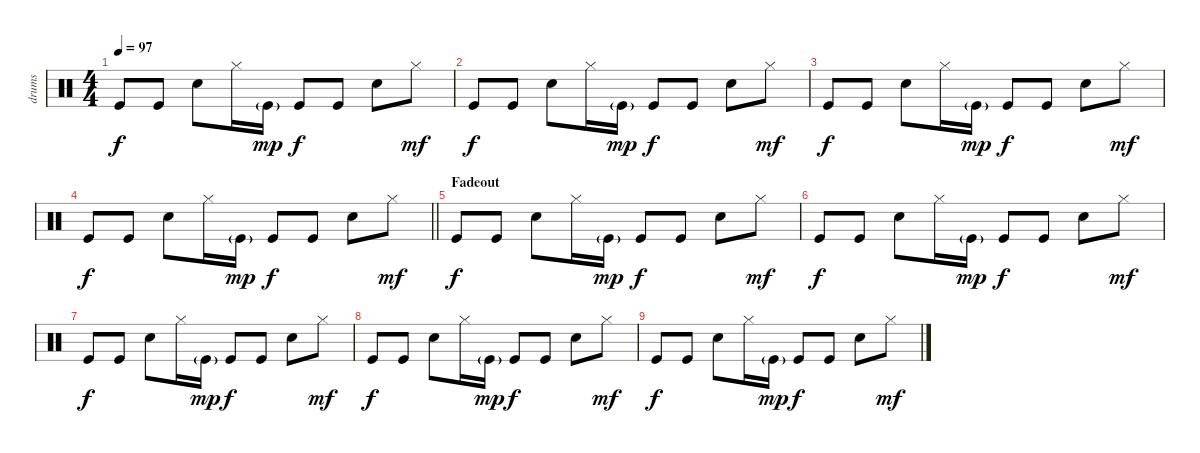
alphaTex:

\track ("drums" "drums") {instrument percussion}
\staff {score}
\articulation defaults
\ts (4 4)
\tempo 97
\clef neutral
\ks c "Kick (hit)".8{dy f} "Kick (hit)".8 "Electric Snare (hit)".8 "Hi-Hat (closed)".16 "Kick (hit)"{g}.16{dy mp} "Kick (hit)".8{dy f} "Kick (hit)".8 "Electric Snare (hit)".8 "Hi-Hat (closed)".8{dy mf}
|
"Kick (hit)".8{dy f} "Kick (hit)".8 "Electric Snare (hit)".8 "Hi-Hat (closed)".16 "Kick (hit)"{g}.16{dy mp} "Kick (hit)".8{dy f} "Kick (hit)".8 "Electric Snare (hit)".8 "Hi-Hat (closed)".8{dy mf} |
"Kick (hit)".8{dy f} "Kick (hit)".8 "Electric Snare (hit)".8 "Hi-Hat (closed)".16 "Kick (hit)"{g}.16{dy mp} "Kick (hit)".8{dy f} "Kick (hit)".8 "Electric Snare (hit)".8 "Hi-Hat (closed)".8{dy mf} |
\barLineRight lightlight "Kick (hit)".8{dy f} "Kick (hit)".8 "Electric Snare (hit)".8 "Hi-Hat (closed)".16 "Kick (hit)"{g}.16{dy mp} "Kick (hit)".8{dy f} "Kick (hit)".8 "Electric Snare (hit)".8 "Hi-Hat (closed)".8{dy mf}
|
\section ("" "Fadeout")
"Kick (hit)".8{dy f} "Kick (hit)".8 "Electric Snare (hit)".8 "Hi-Hat (closed)".16 "Kick (hit)"{g}.16{dy mp} "Kick (hit)".8{dy f} "Kick (hit)".8 "Electric Snare (hit)".8 "Hi-Hat (closed)".8{dy mf} |
"Kick (hit)".8{dy f} "Kick (hit)".8 "Electric Snare (hit)".8 "Hi-Hat (closed)".16 "Kick (hit)"{g}.16{dy mp} "Kick (hit)".8{dy f} "Kick (hit)".8 "Electric Snare (hit)".8 "Hi-Hat (closed)".8{dy mf} |
"Kick (hit)".8{dy f} "Kick (hit)".8 "Electric Snare (hit)".8 "Hi-Hat (closed)".16 "Kick (hit)"{g}.16{dy mp} "Kick (hit)".8{dy f} "Kick (hit)".8 "Electric Snare (hit)".8 "Hi-Hat (closed)".8{dy mf} |
"Kick (hit)".8{dy f} "Kick (hit)".8 "Electric Snare (hit)".8 "Hi-Hat (closed)".16 "Kick (hit)"{g}.16{dy mp} "Kick (hit)".8{dy f} "Kick (hit)".8 "Electric Snare (hit)".8 "Hi-Hat (closed)".8{dy mf} |
"Kick (hit)".8{dy f} "Kick (hit)".8 "Electric Snare (hit)".8 "Hi-Hat (closed)".16 "Kick (hit)"{g}.16{dy mp} "Kick (hit)".8{dy f} "Kick (hit)".8 "Electric Snare (hit)".8 "Hi-Hat (closed)".8{dy mf}
